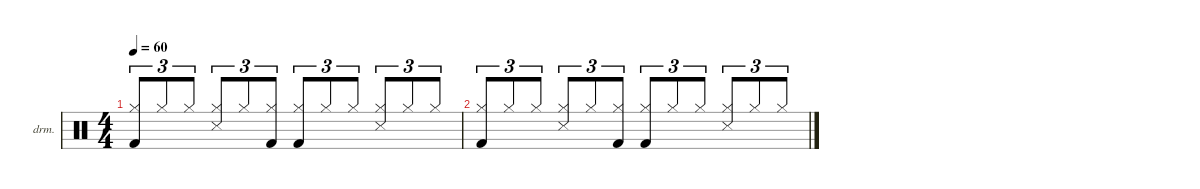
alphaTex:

\defaultSystemsLayout 4
\hideDynamics
\bracketExtendMode nobrackets
\firstSystemTrackNameOrientation horizontal
\otherSystemsTrackNameOrientation horizontal
\track ("Drumkit" "drm.") {defaultSystemsLayout 4 instrument percussion}
\staff {score}
\articulation defaults
\ts (4 4)
\tempo 60
\clef neutral
\ks c
("Hi-Hat (closed)" "Kick (hit) 2").8{tu (3 2) dy mf beam Up} "Hi-Hat (closed)".8{tu (3 2) beam Up} "Hi-Hat (closed)".8{tu (3 2) beam Up} ("Hi-Hat (closed)" "Snare (side stick) 3").8{tu (3 2) beam Up} "Hi-Hat (closed)".8{tu (3 2) beam Up} ("Hi-Hat (closed)" "Kick (hit) 2").8{tu (3 2) beam Up} ("Hi-Hat (closed)" "Kick (hit) 2").8{tu (3 2) beam Up} "Hi-Hat (closed)".8{tu (3 2) beam Up} "Hi-Hat (closed)".8{tu (3 2) beam Up} ("Hi-Hat (closed)" "Snare (side stick) 3").8{tu (3 2) beam Up} "Hi-Hat (closed)".8{tu (3 2) beam Up} "Hi-Hat (closed)".8{tu (3 2) beam Up} |
("Hi-Hat (closed)" "Kick (hit) 2").8{tu (3 2) beam Up} "Hi-Hat (closed)".8{tu (3 2) beam Up} "Hi-Hat (closed)".8{tu (3 2) beam Up} ("Hi-Hat (closed)" "Snare (side stick) 3").8{tu (3 2) beam Up} "Hi-Hat (closed)".8{tu (3 2) beam Up} ("Hi-Hat (closed)" "Kick (hit) 2").8{tu (3 2) beam Up} ("Hi-Hat (closed)" "Kick (hit) 2").8{tu (3 2) beam Up} "Hi-Hat (closed)".8{tu (3 2) beam Up} "Hi-Hat (closed)".8{tu (3 2) beam Up} ("Hi-Hat (closed)" "Snare (side stick) 3").8{tu (3 2) beam Up} "Hi-Hat (closed)".8{tu (3 2) beam Up} "Hi-Hat (closed)".8{tu (3 2) beam Up}
